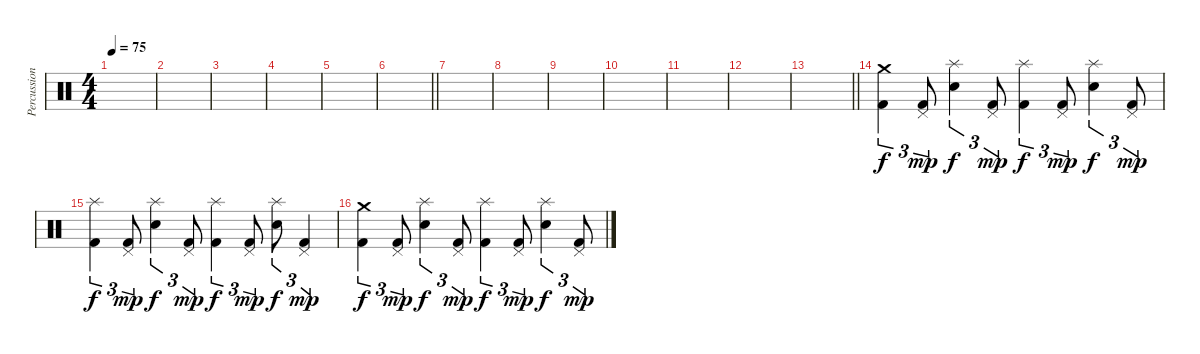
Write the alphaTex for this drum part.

\track ("Percussions" "Percussion") {instrument percussion}
\staff {score}
\articulation defaults
\ts (4 4)
\tempo 75
\clef neutral
\ks c
|
|
|
|
|
\barLineRight lightlight
|
|
|
|
|
|
|
\barLineRight lightlight
|
("Crash medium (hit)" "Kick (hit) 2").4{tu (3 2)} ("Pedal Hi-Hat (hit)" "Kick (hit) 2").8{tu (3 2) dy mp} ("Splash (hit)" "Electric Snare (hit)").4{tu (3 2) dy f} ("Pedal Hi-Hat (hit)" "Kick (hit) 2").8{tu (3 2) dy mp} ("Splash (hit)" "Kick (hit) 2").4{tu (3 2) dy f} ("Pedal Hi-Hat (hit)" "Kick (hit) 2").8{tu (3 2) dy mp} ("Splash (hit)" "Electric Snare (hit)").4{tu (3 2) dy f} ("Pedal Hi-Hat (hit)" "Kick (hit) 2").8{tu (3 2) dy mp} |
("Splash (hit)" "Kick (hit) 2").4{tu (3 2) dy f} ("Pedal Hi-Hat (hit)" "Kick (hit) 2").8{tu (3 2) dy mp} ("Splash (hit)" "Electric Snare (hit)").4{tu (3 2) dy f} ("Pedal Hi-Hat (hit)" "Kick (hit) 2").8{tu (3 2) dy mp} ("Splash (hit)" "Kick (hit) 2").4{tu (3 2) dy f} ("Pedal Hi-Hat (hit)" "Kick (hit) 2").8{tu (3 2) dy mp} ("Splash (hit)" "Electric Snare (hit)").8{tu (3 2) dy f} ("Pedal Hi-Hat (hit)" "Kick (hit) 2").4{tu (3 2) dy mp} |
("Crash medium (hit)" "Kick (hit) 2").4{tu (3 2) dy f} ("Pedal Hi-Hat (hit)" "Kick (hit) 2").8{tu (3 2) dy mp} ("Splash (hit)" "Electric Snare (hit)").4{tu (3 2) dy f} ("Pedal Hi-Hat (hit)" "Kick (hit) 2").8{tu (3 2) dy mp} ("Splash (hit)" "Kick (hit) 2").4{tu (3 2) dy f} ("Pedal Hi-Hat (hit)" "Kick (hit) 2").8{tu (3 2) dy mp} ("Splash (hit)" "Electric Snare (hit)").4{tu (3 2) dy f} ("Pedal Hi-Hat (hit)" "Kick (hit) 2").8{tu (3 2) dy mp}
